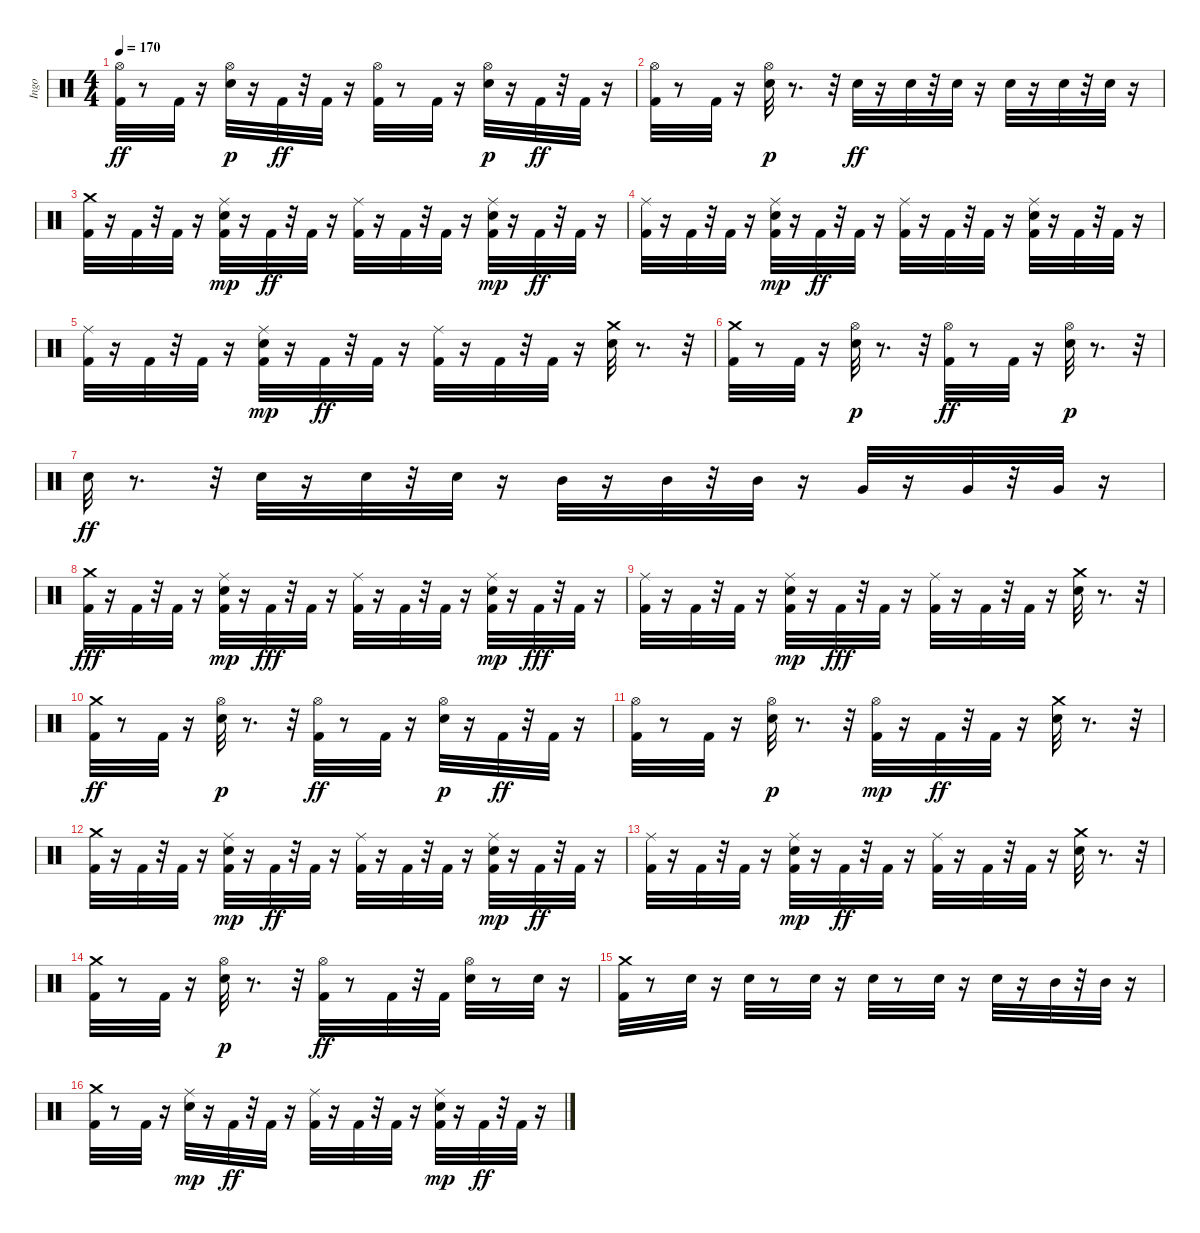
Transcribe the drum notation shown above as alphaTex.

\track ("Ingo" "Ingo") {instrument percussion}
\staff {score}
\articulation defaults
\ts (4 4)
\tempo 170
\clef neutral
\ks c
("Hi-Hat (open)" "Kick (hit) 2").32{dy ff} r.8 "Kick (hit) 2".32 r.16 ("Snare (hit) 2" "Hi-Hat (open)").32{dy p} r.16 "Kick (hit) 2".32{dy ff} r.32 "Kick (hit) 2".32 r.16 ("Hi-Hat (open)" "Kick (hit) 2").32 r.8 "Kick (hit) 2".32 r.16 ("Snare (hit) 2" "Hi-Hat (open)").32{dy p} r.16 "Kick (hit) 2".32{dy ff} r.32 "Kick (hit) 2".32 r.16 |
("Hi-Hat (open)" "Kick (hit) 2").32 r.8 "Kick (hit) 2".32 r.16 ("Snare (hit) 2" "Hi-Hat (open)").32{dy p} r.8{d} r.32 "Snare (hit) 2".32{dy ff} r.16 "Snare (hit) 2".32 r.32 "Snare (hit) 2".32 r.16 "Snare (hit) 2".32 r.16 "Snare (hit) 2".32 r.32 "Snare (hit) 2".32 r.16 |
("Crash medium (hit)" "Kick (hit) 2").32 r.16 "Kick (hit) 2".32 r.32 "Kick (hit) 2".32 r.16 ("Kick (hit) 2" "Snare (hit) 2" "Ride (middle)").32{dy mp} r.16 "Kick (hit) 2".32{dy ff} r.32 "Kick (hit) 2".32 r.16 ("Ride (middle)" "Kick (hit) 2").32 r.16 "Kick (hit) 2".32 r.32 "Kick (hit) 2".32 r.16 ("Kick (hit) 2" "Snare (hit) 2" "Ride (middle)").32{dy mp} r.16 "Kick (hit) 2".32{dy ff} r.32 "Kick (hit) 2".32 r.16 |
("Ride (middle)" "Kick (hit) 2").32 r.16 "Kick (hit) 2".32 r.32 "Kick (hit) 2".32 r.16 ("Kick (hit) 2" "Snare (hit) 2" "Ride (middle)").32{dy mp} r.16 "Kick (hit) 2".32{dy ff} r.32 "Kick (hit) 2".32 r.16 ("Ride (middle)" "Kick (hit) 2").32 r.16 "Kick (hit) 2".32 r.32 "Kick (hit) 2".32 r.16 ("Ride (middle)" "Kick (hit) 2" "Snare (hit) 2").32 r.16 "Kick (hit) 2".32 r.32 "Kick (hit) 2".32 r.16 |
("Ride (middle)" "Kick (hit) 2").32 r.16 "Kick (hit) 2".32 r.32 "Kick (hit) 2".32 r.16 ("Kick (hit) 2" "Snare (hit) 2" "Ride (middle)").32{dy mp} r.16 "Kick (hit) 2".32{dy ff} r.32 "Kick (hit) 2".32 r.16 ("Ride (middle)" "Kick (hit) 2").32 r.16 "Kick (hit) 2".32 r.32 "Kick (hit) 2".32 r.16 ("Crash medium (hit)" "Snare (hit) 2").32 r.8{d} r.32 |
("Crash medium (hit)" "Kick (hit) 2").32 r.8 "Kick (hit) 2".32 r.16 ("Snare (hit) 2" "Hi-Hat (open)").32{dy p} r.8{d} r.32 ("Hi-Hat (open)" "Kick (hit) 2").32{dy ff} r.8 "Kick (hit) 2".32 r.16 ("Snare (hit) 2" "Hi-Hat (open)").32{dy p} r.8{d} r.32 |
"Snare (hit) 2".32{dy ff} r.8{d} r.32 "Snare (hit) 2".32 r.16 "Snare (hit) 2".32 r.32 "Snare (hit) 2".32 r.16 "Mid Tom (hit)".32 r.16 "Mid Tom (hit)".32 r.32 "Mid Tom (hit)".32 r.16 "Very Low Tom (hit)".32 r.16 "Very Low Tom (hit)".32 r.32 "Very Low Tom (hit)".32 r.16 |
("Crash medium (hit)" "Kick (hit) 2").32{dy fff} r.16 "Kick (hit) 2".32 r.32 "Kick (hit) 2".32 r.16 ("Kick (hit) 2" "Snare (hit) 2" "Ride (middle)").32{dy mp} r.16 "Kick (hit) 2".32{dy fff} r.32 "Kick (hit) 2".32 r.16 ("Ride (middle)" "Kick (hit) 2").32 r.16 "Kick (hit) 2".32 r.32 "Kick (hit) 2".32 r.16 ("Kick (hit) 2" "Snare (hit) 2" "Ride (middle)").32{dy mp} r.16 "Kick (hit) 2".32{dy fff} r.32 "Kick (hit) 2".32 r.16 |
("Ride (middle)" "Kick (hit) 2").32 r.16 "Kick (hit) 2".32 r.32 "Kick (hit) 2".32 r.16 ("Kick (hit) 2" "Snare (hit) 2" "Ride (middle)").32{dy mp} r.16 "Kick (hit) 2".32{dy fff} r.32 "Kick (hit) 2".32 r.16 ("Ride (middle)" "Kick (hit) 2").32 r.16 "Kick (hit) 2".32 r.32 "Kick (hit) 2".32 r.16 ("Crash medium (hit)" "Snare (hit) 2").32 r.8{d} r.32 |
("Crash medium (hit)" "Kick (hit) 2").32{dy ff} r.8 "Kick (hit) 2".32 r.16 ("Snare (hit) 2" "Hi-Hat (open)").32{dy p} r.8{d} r.32 ("Hi-Hat (open)" "Kick (hit) 2").32{dy ff} r.8 "Kick (hit) 2".32 r.16 ("Snare (hit) 2" "Hi-Hat (open)").32{dy p} r.16 "Kick (hit) 2".32{dy ff} r.32 "Kick (hit) 2".32 r.16 |
("Hi-Hat (open)" "Kick (hit) 2").32 r.8 "Kick (hit) 2".32 r.16 ("Snare (hit) 2" "Hi-Hat (open)").32{dy p} r.8{d} r.32 ("Kick (hit) 2" "Hi-Hat (open)").32{dy mp} r.16 "Kick (hit) 2".32{dy ff} r.32 "Kick (hit) 2".32 r.16 ("Crash medium (hit)" "Snare (hit) 2").32 r.8{d} r.32 |
("Crash medium (hit)" "Kick (hit) 2").32 r.16 "Kick (hit) 2".32 r.32 "Kick (hit) 2".32 r.16 ("Kick (hit) 2" "Snare (hit) 2" "Ride (middle)").32{dy mp} r.16 "Kick (hit) 2".32{dy ff} r.32 "Kick (hit) 2".32 r.16 ("Ride (middle)" "Kick (hit) 2").32 r.16 "Kick (hit) 2".32 r.32 "Kick (hit) 2".32 r.16 ("Kick (hit) 2" "Snare (hit) 2" "Ride (middle)").32{dy mp} r.16 "Kick (hit) 2".32{dy ff} r.32 "Kick (hit) 2".32 r.16 |
("Ride (middle)" "Kick (hit) 2").32 r.16 "Kick (hit) 2".32 r.32 "Kick (hit) 2".32 r.16 ("Kick (hit) 2" "Snare (hit) 2" "Ride (middle)").32{dy mp} r.16 "Kick (hit) 2".32{dy ff} r.32 "Kick (hit) 2".32 r.16 ("Ride (middle)" "Kick (hit) 2").32 r.16 "Kick (hit) 2".32 r.32 "Kick (hit) 2".32 r.16 ("Crash medium (hit)" "Snare (hit) 2").32 r.8{d} r.32 |
("Crash medium (hit)" "Kick (hit) 2").32 r.8 "Kick (hit) 2".32 r.16 ("Snare (hit) 2" "Hi-Hat (open)").32{dy p} r.8{d} r.32 ("Hi-Hat (open)" "Kick (hit) 2").32{dy ff} r.8 "Kick (hit) 2".32 r.32 "Kick (hit) 2".32 ("Hi-Hat (open)" "Snare (hit) 2").32 r.8 "Snare (hit) 2".32 r.16 |
("Crash medium (hit)" "Kick (hit) 2").32 r.8 "Snare (hit) 2".32 r.16 "Snare (hit) 2".32 r.8 "Snare (hit) 2".32 r.16 "Snare (hit) 2".32 r.8 "Snare (hit) 2".32 r.16 "Snare (hit) 2".32 r.16 "Mid Tom (hit)".32 r.32 "Mid Tom (hit)".32 r.16 |
("Kick (hit) 2" "Crash medium (hit)").32 r.8 "Kick (hit) 2".32 r.16 ("Snare (hit) 2" "Ride (middle)").32{dy mp} r.16 "Kick (hit) 2".32{dy ff} r.32 "Kick (hit) 2".32 r.16 ("Ride (middle)" "Kick (hit) 2").32 r.16 "Kick (hit) 2".32 r.32 "Kick (hit) 2".32 r.16 ("Kick (hit) 2" "Snare (hit) 2" "Ride (middle)").32{dy mp} r.16 "Kick (hit) 2".32{dy ff} r.32 "Kick (hit) 2".32 r.16
